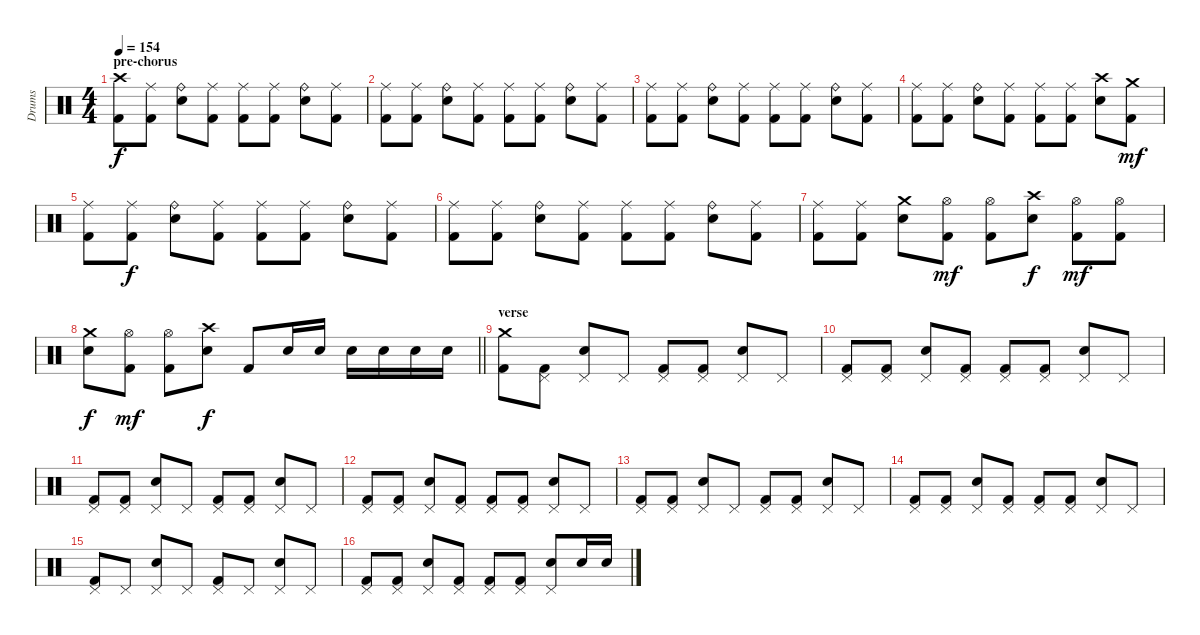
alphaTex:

\track ("Drums" "Drums") {instrument percussion}
\staff {score}
\articulation defaults
\ts (4 4)
\section ("" "pre-chorus")
\tempo 154
\clef neutral
\ks c
("Crash high (hit)" "Kick (hit) 2").8{dy f} ("Ride (middle)" "Kick (hit) 2").8 ("Ride (bell)" "Snare (hit) 2").8 ("Ride (middle)" "Kick (hit) 2").8 ("Ride (middle)" "Kick (hit) 2").8 ("Ride (middle)" "Kick (hit) 2").8 ("Ride (bell)" "Snare (hit) 2").8 ("Ride (middle)" "Kick (hit) 2").8 |
("Ride (middle)" "Kick (hit) 2").8 ("Ride (middle)" "Kick (hit) 2").8 ("Ride (bell)" "Snare (hit) 2").8 ("Ride (middle)" "Kick (hit) 2").8 ("Ride (middle)" "Kick (hit) 2").8 ("Ride (middle)" "Kick (hit) 2").8 ("Ride (bell)" "Snare (hit) 2").8 ("Ride (middle)" "Kick (hit) 2").8 |
("Ride (middle)" "Kick (hit) 2").8 ("Ride (middle)" "Kick (hit) 2").8 ("Ride (bell)" "Snare (hit) 2").8 ("Ride (middle)" "Kick (hit) 2").8 ("Ride (middle)" "Kick (hit) 2").8 ("Ride (middle)" "Kick (hit) 2").8 ("Ride (bell)" "Snare (hit) 2").8 ("Ride (middle)" "Kick (hit) 2").8 |
("Ride (middle)" "Kick (hit) 2").8 ("Ride (middle)" "Kick (hit) 2").8 ("Ride (bell)" "Snare (hit) 2").8 ("Ride (middle)" "Kick (hit) 2").8 ("Ride (middle)" "Kick (hit) 2").8 ("Ride (middle)" "Kick (hit) 2").8 ("Crash high (hit)" "Snare (hit) 2").8 ("Crash medium (hit)" "Kick (hit) 2").8{dy mf} |
("Ride (middle)" "Kick (hit) 2").8 ("Ride (middle)" "Kick (hit) 2").8{dy f} ("Ride (bell)" "Snare (hit) 2").8 ("Ride (middle)" "Kick (hit) 2").8 ("Ride (middle)" "Kick (hit) 2").8 ("Ride (middle)" "Kick (hit) 2").8 ("Ride (bell)" "Snare (hit) 2").8 ("Ride (middle)" "Kick (hit) 2").8 |
("Ride (middle)" "Kick (hit) 2").8 ("Ride (middle)" "Kick (hit) 2").8 ("Ride (bell)" "Snare (hit) 2").8 ("Ride (middle)" "Kick (hit) 2").8 ("Ride (middle)" "Kick (hit) 2").8 ("Ride (middle)" "Kick (hit) 2").8 ("Ride (bell)" "Snare (hit) 2").8 ("Ride (middle)" "Kick (hit) 2").8 |
("Ride (middle)" "Kick (hit) 2").8 ("Ride (middle)" "Kick (hit) 2").8 ("Crash medium (hit)" "Snare (hit) 2").8 ("Hi-Hat (open)" "Kick (hit) 2").8{dy mf} ("Hi-Hat (open)" "Kick (hit) 2").8 ("Crash high (hit)" "Snare (hit) 2").8{dy f} ("Hi-Hat (open)" "Kick (hit) 2").8{dy mf} ("Hi-Hat (open)" "Kick (hit) 2").8 |
\barLineRight lightlight
("Crash medium (hit)" "Snare (hit) 2").8{dy f} ("Hi-Hat (open)" "Kick (hit) 2").8{dy mf} ("Hi-Hat (open)" "Kick (hit) 2").8 ("Crash high (hit)" "Snare (hit) 2").8{dy f} "Kick (hit) 2".8 "Snare (hit) 2".16 "Snare (hit) 2".16 "Snare (hit) 2".16 "Snare (hit) 2".16 "Snare (hit) 2".16 "Snare (hit) 2".16 |
\section ("" "verse")
("Crash medium (hit)" "Kick (hit) 2").8 ("Pedal Hi-Hat (hit)" "Kick (hit) 2").8 ("Pedal Hi-Hat (hit)" "Snare (hit) 2").8 "Pedal Hi-Hat (hit)".8 ("Pedal Hi-Hat (hit)" "Kick (hit) 2").8 ("Pedal Hi-Hat (hit)" "Kick (hit) 2").8 ("Pedal Hi-Hat (hit)" "Snare (hit) 2").8 "Pedal Hi-Hat (hit)".8 |
("Pedal Hi-Hat (hit)" "Kick (hit) 2").8 ("Pedal Hi-Hat (hit)" "Kick (hit) 2").8 ("Pedal Hi-Hat (hit)" "Snare (hit) 2").8 ("Pedal Hi-Hat (hit)" "Kick (hit) 2").8 ("Pedal Hi-Hat (hit)" "Kick (hit) 2").8 ("Pedal Hi-Hat (hit)" "Kick (hit) 2").8 ("Pedal Hi-Hat (hit)" "Snare (hit) 2").8 "Pedal Hi-Hat (hit)".8 |
("Pedal Hi-Hat (hit)" "Kick (hit) 2").8 ("Pedal Hi-Hat (hit)" "Kick (hit) 2").8 ("Pedal Hi-Hat (hit)" "Snare (hit) 2").8 "Pedal Hi-Hat (hit)".8 ("Pedal Hi-Hat (hit)" "Kick (hit) 2").8 ("Pedal Hi-Hat (hit)" "Kick (hit) 2").8 ("Pedal Hi-Hat (hit)" "Snare (hit) 2").8 "Pedal Hi-Hat (hit)".8 |
("Pedal Hi-Hat (hit)" "Kick (hit) 2").8 ("Pedal Hi-Hat (hit)" "Kick (hit) 2").8 ("Pedal Hi-Hat (hit)" "Snare (hit) 2").8 ("Pedal Hi-Hat (hit)" "Kick (hit) 2").8 ("Pedal Hi-Hat (hit)" "Kick (hit) 2").8 ("Pedal Hi-Hat (hit)" "Kick (hit) 2").8 ("Pedal Hi-Hat (hit)" "Snare (hit) 2").8 "Pedal Hi-Hat (hit)".8 |
("Pedal Hi-Hat (hit)" "Kick (hit) 2").8 ("Pedal Hi-Hat (hit)" "Kick (hit) 2").8 ("Pedal Hi-Hat (hit)" "Snare (hit) 2").8 "Pedal Hi-Hat (hit)".8 ("Pedal Hi-Hat (hit)" "Kick (hit) 2").8 ("Pedal Hi-Hat (hit)" "Kick (hit) 2").8 ("Pedal Hi-Hat (hit)" "Snare (hit) 2").8 "Pedal Hi-Hat (hit)".8 |
("Pedal Hi-Hat (hit)" "Kick (hit) 2").8 ("Pedal Hi-Hat (hit)" "Kick (hit) 2").8 ("Pedal Hi-Hat (hit)" "Snare (hit) 2").8 ("Pedal Hi-Hat (hit)" "Kick (hit) 2").8 ("Pedal Hi-Hat (hit)" "Kick (hit) 2").8 ("Pedal Hi-Hat (hit)" "Kick (hit) 2").8 ("Pedal Hi-Hat (hit)" "Snare (hit) 2").8 "Pedal Hi-Hat (hit)".8 |
("Pedal Hi-Hat (hit)" "Kick (hit) 2").8 "Pedal Hi-Hat (hit)".8 ("Pedal Hi-Hat (hit)" "Snare (hit) 2").8 "Pedal Hi-Hat (hit)".8 ("Pedal Hi-Hat (hit)" "Kick (hit) 2").8 "Pedal Hi-Hat (hit)".8 ("Pedal Hi-Hat (hit)" "Snare (hit) 2").8 "Pedal Hi-Hat (hit)".8 |
("Pedal Hi-Hat (hit)" "Kick (hit) 2").8 ("Pedal Hi-Hat (hit)" "Kick (hit) 2").8 ("Pedal Hi-Hat (hit)" "Snare (hit) 2").8 ("Pedal Hi-Hat (hit)" "Kick (hit) 2").8 ("Pedal Hi-Hat (hit)" "Kick (hit) 2").8 ("Pedal Hi-Hat (hit)" "Kick (hit) 2").8 ("Pedal Hi-Hat (hit)" "Snare (hit) 2").8 "Snare (hit) 2".16 "Snare (hit) 2".16
